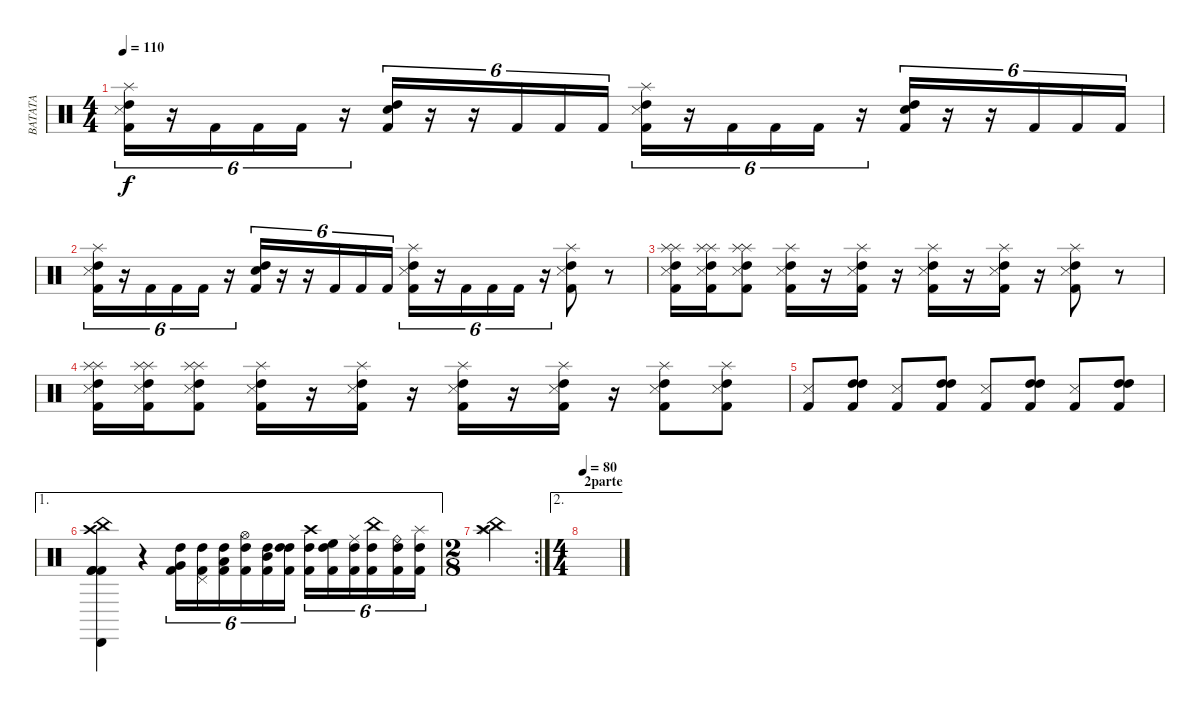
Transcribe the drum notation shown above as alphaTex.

\track ("BATATA" "BATATA") {instrument percussion}
\staff {score}
\articulation defaults
\ts (4 4)
\tempo 110
\clef neutral
\ks c
("Splash (hit)" "Snare (side stick) 3" "High Tom (hit)" "Kick (hit) 2").16{tu (6 4) dy f} r.16{tu (6 4)} "Kick (hit) 2".16{tu (6 4)} "Kick (hit) 2".16{tu (6 4)} "Kick (hit) 2".16{tu (6 4)} r.16{tu (6 4)} ("Snare (hit) 2" "High Tom (hit)" "Kick (hit) 2").16{tu (6 4)} r.16{tu (6 4)} r.16{tu (6 4)} "Kick (hit) 2".16{tu (6 4)} "Kick (hit) 2".16{tu (6 4)} "Kick (hit) 2".16{tu (6 4)} ("Splash (hit)" "Snare (side stick) 3" "High Tom (hit)" "Kick (hit) 2").16{tu (6 4)} r.16{tu (6 4)} "Kick (hit) 2".16{tu (6 4)} "Kick (hit) 2".16{tu (6 4)} "Kick (hit) 2".16{tu (6 4)} r.16{tu (6 4)} ("Snare (hit) 2" "High Tom (hit)" "Kick (hit) 2").16{tu (6 4)} r.16{tu (6 4)} r.16{tu (6 4)} "Kick (hit) 2".16{tu (6 4)} "Kick (hit) 2".16{tu (6 4)} "Kick (hit) 2".16{tu (6 4)} |
("Splash (hit)" "Snare (side stick) 3" "High Tom (hit)" "Kick (hit) 2").16{tu (6 4)} r.16{tu (6 4)} "Kick (hit) 2".16{tu (6 4)} "Kick (hit) 2".16{tu (6 4)} "Kick (hit) 2".16{tu (6 4)} r.16{tu (6 4)} ("Snare (hit) 2" "High Tom (hit)" "Kick (hit) 2").16{tu (6 4)} r.16{tu (6 4)} r.16{tu (6 4)} "Kick (hit) 2".16{tu (6 4)} "Kick (hit) 2".16{tu (6 4)} "Kick (hit) 2".16{tu (6 4)} ("Splash (hit)" "Snare (side stick) 3" "High Tom (hit)" "Kick (hit) 2").16{tu (6 4)} r.16{tu (6 4)} "Kick (hit) 2".16{tu (6 4)} "Kick (hit) 2".16{tu (6 4)} "Kick (hit) 2".16{tu (6 4)} r.16{tu (6 4)} ("Snare (side stick) 3" "High Tom (hit)" "Splash (hit)" "Kick (hit) 2").8 r.8 |
("Splash (hit)" "Snare (side stick) 3" "High Tom (hit)" "Splash (hit)" "Kick (hit) 2").16 ("Splash (hit)" "Snare (side stick) 3" "High Tom (hit)" "Splash (hit)" "Kick (hit) 2").16 ("Splash (hit)" "Snare (side stick) 3" "High Tom (hit)" "Splash (hit)" "Kick (hit) 2").8 ("Snare (side stick) 3" "High Tom (hit)" "Splash (hit)" "Kick (hit) 2").16 r.16 ("Snare (side stick) 3" "High Tom (hit)" "Splash (hit)" "Kick (hit) 2").16 r.16 ("Snare (side stick) 3" "High Tom (hit)" "Splash (hit)" "Kick (hit) 2").16 r.16 ("Snare (side stick) 3" "High Tom (hit)" "Splash (hit)" "Kick (hit) 2").16 r.16 ("Snare (side stick) 3" "High Tom (hit)" "Splash (hit)" "Kick (hit) 2").8 r.8 |
("Splash (hit)" "Snare (side stick) 3" "High Tom (hit)" "Splash (hit)" "Kick (hit) 2").16 ("Splash (hit)" "Snare (side stick) 3" "High Tom (hit)" "Splash (hit)" "Kick (hit) 2").16 ("Splash (hit)" "Snare (side stick) 3" "High Tom (hit)" "Splash (hit)" "Kick (hit) 2").8 ("Snare (side stick) 3" "High Tom (hit)" "Splash (hit)" "Kick (hit) 2").16 r.16 ("Snare (side stick) 3" "High Tom (hit)" "Splash (hit)" "Kick (hit) 2").16 r.16 ("Snare (side stick) 3" "High Tom (hit)" "Splash (hit)" "Kick (hit) 2").16 r.16 ("Snare (side stick) 3" "High Tom (hit)" "Splash (hit)" "Kick (hit) 2").16 r.16 ("Snare (side stick) 3" "High Tom (hit)" "Splash (hit)" "Kick (hit) 2").8 ("Snare (side stick) 3" "High Tom (hit)" "Splash (hit)" "Kick (hit) 2").8 |
("Snare (side stick) 3" "Kick (hit) 2").8 ("High Tom (hit)" "High Tom (hit)" "Kick (hit) 2").8 ("Snare (side stick) 3" "Kick (hit) 2").8 ("High Tom (hit)" "High Tom (hit)" "Kick (hit) 2").8 ("Snare (side stick) 3" "Kick (hit) 2").8 ("High Tom (hit)" "High Tom (hit)" "Kick (hit) 2").8 ("Snare (side stick) 3" "Kick (hit) 2").8 ("High Tom (hit)" "High Tom (hit)" "Kick (hit) 2").8 |
\ae 1
("Kick (hit) 2" "Kick (hit) 2" "Cabasa (hit)" "Kick (hit) 2" "Crash high (hit)" "China (hit)").4 r.4 ("Very Low Tom (hit)" "High Tom (hit)" "Kick (hit) 2").16{tu (6 4)} ("Pedal Hi-Hat (hit)" "High Tom (hit)" "Kick (hit) 2").16{tu (6 4)} ("Low Tom (hit)" "High Tom (hit)" "Kick (hit) 2").16{tu (6 4)} ("Hi-Hat (open)" "High Tom (hit)" "Kick (hit) 2").16{tu (6 4)} ("Mid Tom (hit)" "High Tom (hit)" "Kick (hit) 2").16{tu (6 4)} ("High Tom (hit)" "High Tom (hit)" "Kick (hit) 2").16{tu (6 4)} ("Crash high (hit)" "High Tom (hit)" "Kick (hit) 2").16{tu (6 4)} ("High Floor Tom (hit)" "High Tom (hit)" "Kick (hit) 2").16{tu (6 4)} ("Ride (middle)" "High Tom (hit)" "Kick (hit) 2").16{tu (6 4)} ("China (hit)" "High Tom (hit)" "Kick (hit) 2").16{tu (6 4)} ("Ride (bell)" "High Tom (hit)" "Kick (hit) 2").16{tu (6 4)} ("Splash (hit)" "High Tom (hit)" "Kick (hit) 2").16{tu (6 4)} |
\rc 2
\ts (2 8)
("Splash (hit)" "Crash high (hit)" "China (hit)").4 |
\ae 2
\ts (4 4)
\section ("" "2parte")
\tempo 80
